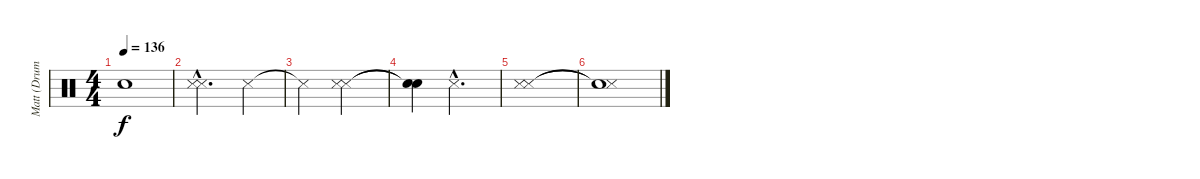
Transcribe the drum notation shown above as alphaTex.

\track ("Matt (Drums)" "Matt (Drum") {instrument percussion}
\staff {score}
\articulation defaults
\ts (4 4)
\tempo 136
\clef neutral
\ks c "Snare (hit)"{t}.1{dy f}
|
("Snare (side stick) 3"{hac} "Metronome (hit)"{hac}).2{d} "Metronome (hit)".4 |
"Metronome (hit)"{t}.2 ("Snare (side stick) 3" "Metronome (hit)").2 |
("Snare (hit)"{t} "Snare (hit)"{t}).4 "Metronome (hit)"{hac}.2{d} |
("Snare (side stick) 3" "Metronome (hit)").1 |
("Snare (side stick) 3"{t} "Snare (hit)"{t}).1
